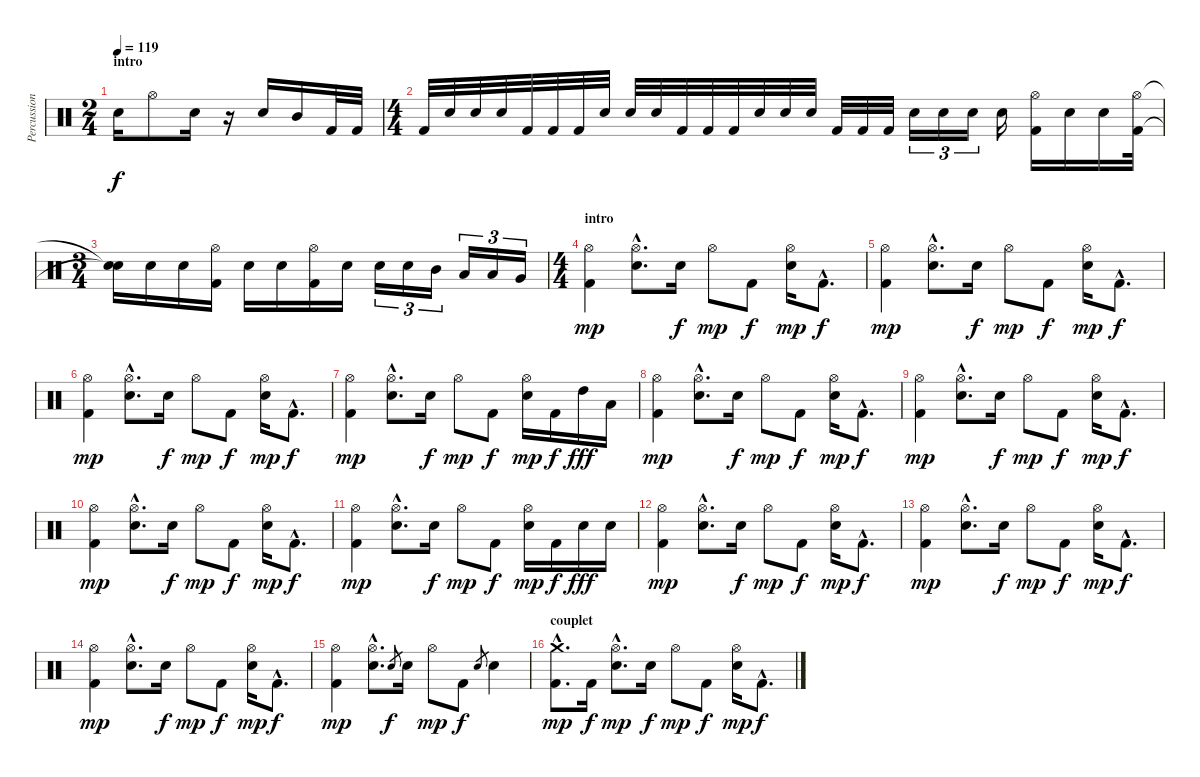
\track ("Percussions" "Percussion") {instrument percussion}
\staff {score}
\articulation defaults
\ts (2 4)
\section ("" "intro")
\tempo 119
\clef neutral
\ks c "Snare (hit) 2".16{dy f} "Hi-Hat (open)".8 "Snare (hit) 2".16
r.16 "Snare (hit) 2".16 "Mid Tom (hit)".16 "Kick (hit) 2".32 "Kick (hit) 2".32 |
\ts (4 4)
"Kick (hit) 2".32 "Snare (hit) 2".32 "Snare (hit) 2".32 "Snare (hit) 2".32 "Kick (hit) 2".32 "Kick (hit) 2".32 "Kick (hit) 2".32 "Snare (hit) 2".32 "Snare (hit) 2".32 "Snare (hit) 2".32 "Kick (hit) 2".32 "Kick (hit) 2".32 "Kick (hit) 2".32 "Snare (hit) 2".32 "Snare (hit) 2".32 "Snare (hit) 2".32 "Kick (hit) 2".32 "Kick (hit) 2".32 "Kick (hit) 2".32 "Snare (hit) 2".16{tu (3 2)} "Snare (hit) 2".16{tu (3 2)} "Snare (hit) 2".16{tu (3 2)} "Snare (hit) 2".16 ("Hi-Hat (open)" "Kick (hit) 2").16 "Snare (hit) 2".16 "Snare (hit) 2".16 ("Hi-Hat (open)" "Kick (hit) 2").32 |
\ts (3 4)
("Snare (hit)"{t} "Snare (hit)"{t}).16 "Snare (hit) 2".16 "Snare (hit) 2".16 ("Hi-Hat (open)" "Kick (hit) 2").16 "Snare (hit) 2".16 "Snare (hit) 2".16 ("Hi-Hat (open)" "Kick (hit) 2").16 "Snare (hit) 2".16 "Snare (hit) 2".16{tu (3 2)} "Snare (hit) 2".16{tu (3 2)} "Mid Tom (hit)".16{tu (3 2)} "Low Tom (hit)".16{tu (3 2)} "Low Tom (hit)".16{tu (3 2)} "Very Low Tom (hit)".16{tu (3 2)} |
\ts (4 4)
\section ("" "intro")
("Hi-Hat (open)" "Kick (hit) 2").4{dy mp} ("Hi-Hat (open)"{hac} "Snare (hit) 2"{hac}).8{d} "Snare (hit) 2".16{dy f} "Hi-Hat (open)".8{dy mp} "Kick (hit) 2".8{dy f} ("Hi-Hat (open)" "Snare (hit) 2").16{dy mp} "Kick (hit) 2"{hac}.8{d dy f} |
("Hi-Hat (open)" "Kick (hit) 2").4{dy mp} ("Hi-Hat (open)"{hac} "Snare (hit) 2"{hac}).8{d} "Snare (hit) 2".16{dy f} "Hi-Hat (open)".8{dy mp} "Kick (hit) 2".8{dy f} ("Hi-Hat (open)" "Snare (hit) 2").16{dy mp} "Kick (hit) 2"{hac}.8{d dy f} |
("Hi-Hat (open)" "Kick (hit) 2").4{dy mp} ("Hi-Hat (open)"{hac} "Snare (hit) 2"{hac}).8{d} "Snare (hit) 2".16{dy f} "Hi-Hat (open)".8{dy mp} "Kick (hit) 2".8{dy f} ("Hi-Hat (open)" "Snare (hit) 2").16{dy mp} "Kick (hit) 2"{hac}.8{d dy f} |
("Hi-Hat (open)" "Kick (hit) 2").4{dy mp} ("Hi-Hat (open)"{hac} "Snare (hit) 2"{hac}).8{d} "Snare (hit) 2".16{dy f} "Hi-Hat (open)".8{dy mp} "Kick (hit) 2".8{dy f} ("Hi-Hat (open)" "Snare (hit) 2").16{dy mp} "Kick (hit) 2".16{dy f} "High Tom (hit)".16{dy fff} "Low Tom (hit)".16 |
("Hi-Hat (open)" "Kick (hit) 2").4{dy mp} ("Hi-Hat (open)"{hac} "Snare (hit) 2"{hac}).8{d} "Snare (hit) 2".16{dy f} "Hi-Hat (open)".8{dy mp} "Kick (hit) 2".8{dy f} ("Hi-Hat (open)" "Snare (hit) 2").16{dy mp} "Kick (hit) 2"{hac}.8{d dy f} |
("Hi-Hat (open)" "Kick (hit) 2").4{dy mp} ("Hi-Hat (open)"{hac} "Snare (hit) 2"{hac}).8{d} "Snare (hit) 2".16{dy f} "Hi-Hat (open)".8{dy mp} "Kick (hit) 2".8{dy f} ("Hi-Hat (open)" "Snare (hit) 2").16{dy mp} "Kick (hit) 2"{hac}.8{d dy f} |
("Hi-Hat (open)" "Kick (hit) 2").4{dy mp} ("Hi-Hat (open)"{hac} "Snare (hit) 2"{hac}).8{d} "Snare (hit) 2".16{dy f} "Hi-Hat (open)".8{dy mp} "Kick (hit) 2".8{dy f} ("Hi-Hat (open)" "Snare (hit) 2").16{dy mp} "Kick (hit) 2"{hac}.8{d dy f} |
("Hi-Hat (open)" "Kick (hit) 2").4{dy mp} ("Hi-Hat (open)"{hac} "Snare (hit) 2"{hac}).8{d} "Snare (hit) 2".16{dy f} "Hi-Hat (open)".8{dy mp} "Kick (hit) 2".8{dy f} ("Hi-Hat (open)" "Snare (hit) 2").16{dy mp} "Kick (hit) 2".16{dy f} "Snare (hit) 2".16{dy fff} "Snare (hit) 2".16 |
("Hi-Hat (open)" "Kick (hit) 2").4{dy mp} ("Hi-Hat (open)"{hac} "Snare (hit) 2"{hac}).8{d} "Snare (hit) 2".16{dy f} "Hi-Hat (open)".8{dy mp} "Kick (hit) 2".8{dy f} ("Hi-Hat (open)" "Snare (hit) 2").16{dy mp} "Kick (hit) 2"{hac}.8{d dy f} |
("Hi-Hat (open)" "Kick (hit) 2").4{dy mp} ("Hi-Hat (open)"{hac} "Snare (hit) 2"{hac}).8{d} "Snare (hit) 2".16{dy f} "Hi-Hat (open)".8{dy mp} "Kick (hit) 2".8{dy f} ("Hi-Hat (open)" "Snare (hit) 2").16{dy mp} "Kick (hit) 2"{hac}.8{d dy f} |
("Hi-Hat (open)" "Kick (hit) 2").4{dy mp} ("Hi-Hat (open)"{hac} "Snare (hit) 2"{hac}).8{d} "Snare (hit) 2".16{dy f} "Hi-Hat (open)".8{dy mp} "Kick (hit) 2".8{dy f} ("Hi-Hat (open)" "Snare (hit) 2").16{dy mp} "Kick (hit) 2"{hac}.8{d dy f} |
("Hi-Hat (open)" "Kick (hit) 2").4{dy mp} ("Hi-Hat (open)"{hac} "Snare (hit) 2"{hac}).8{d} "Snare (hit) 2".8{gr dy f} "Snare (hit) 2".16 "Hi-Hat (open)".8{dy mp} "Kick (hit) 2".8{dy f} "Snare (hit) 2".8{gr} "Snare (hit) 2".4 |
\section ("" "couplet")
("Crash medium (hit)"{hac} "Kick (hit) 2"{hac}).8{d dy mp} "Kick (hit) 2".16{dy f} ("Hi-Hat (open)"{hac} "Snare (hit) 2"{hac}).8{d dy mp} "Electric Snare (hit)".16{dy f} "Hi-Hat (open)".8{dy mp} "Kick (hit) 2".8{dy f} ("Hi-Hat (open)" "Snare (hit) 2").16{dy mp} "Kick (hit) 2"{hac}.8{d dy f}
